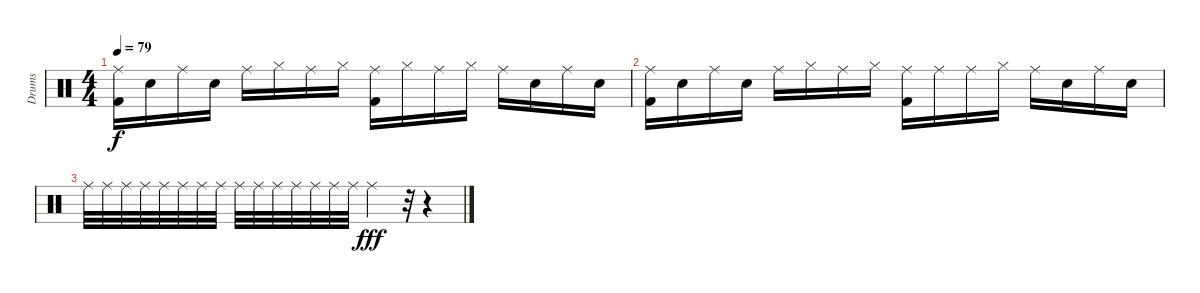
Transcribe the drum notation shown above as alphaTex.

\track ("Drums" "Drums") {instrument percussion}
\staff {score}
\articulation defaults
\ts (4 4)
\tempo 79
\clef neutral
\ks c
("Ride (middle)" "Kick (hit) 2").16{dy f} "Snare (hit)"{x}.16 "Ride (middle)"{x}.16 "Snare (hit)"{x}.16 "Ride (middle)".16 "Hi-Hat (closed)"{x}.16 "Ride (middle)"{x}.16 "Hi-Hat (closed)"{x}.16 ("Ride (middle)" "Kick (hit) 2").16 "Hi-Hat (closed)"{x}.16 "Ride (middle)"{x}.16 "Hi-Hat (closed)"{x}.16 "Ride (middle)".16 "Snare (hit)"{x}.16 "Ride (middle)"{x}.16 "Snare (hit)"{x}.16 |
("Ride (middle)" "Kick (hit) 2").16 "Snare (hit)"{x}.16 "Ride (middle)"{x}.16 "Snare (hit)"{x}.16 "Ride (middle)".16 "Hi-Hat (closed)"{x}.16 "Ride (middle)"{x}.16 "Hi-Hat (closed)"{x}.16 ("Ride (middle)" "Kick (hit) 2").16 "Ride (middle)"{x}.16 "Ride (middle)".16 "Hi-Hat (closed)"{x}.16 "Ride (middle)".16 "Snare (hit)"{x}.16 "Ride (middle)".16 "Snare (hit)"{x}.16 |
"Ride (middle)".32 "Ride (middle)".32 "Ride (middle)".32 "Ride (middle)".32 "Ride (middle)".32 "Ride (middle)".32 "Ride (middle)".32 "Ride (middle)".32 "Ride (middle)".32 "Ride (middle)".32 "Ride (middle)".32 "Ride (middle)".32 "Ride (middle)".32 "Ride (middle)".32 "Ride (middle)".32 "Ride (middle)".4{dy fff} r.32 r.4
